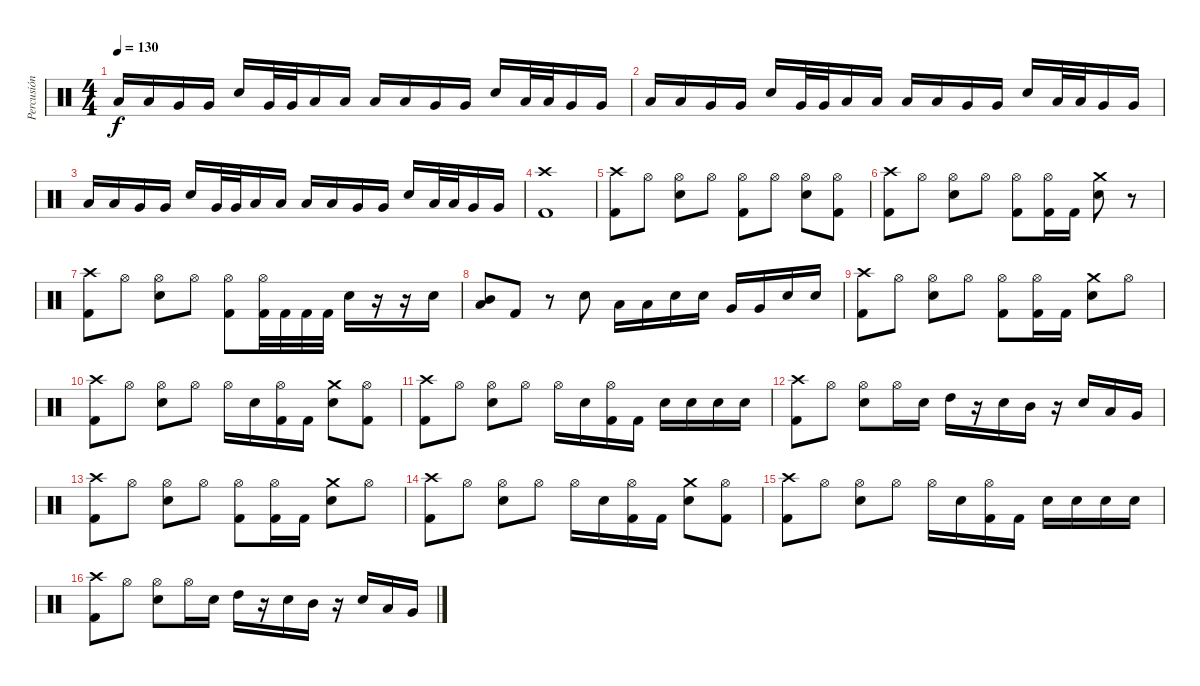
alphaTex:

\track ("Percusión" "Percusión") {instrument percussion}
\staff {score}
\articulation defaults
\ts (4 4)
\tempo 130
\clef neutral
\ks c "Low Tom (hit)".16{dy f} "Low Tom (hit)".16 "Very Low Tom (hit)".16 "Very Low Tom (hit)".16 "Electric Snare (hit)".16 "Very Low Tom (hit)".32 "Very Low Tom (hit)".32 "Low Floor Tom (hit)".16 "Low Floor Tom (hit)".16 "Low Tom (hit)".16 "Low Tom (hit)".16 "Very Low Tom (hit)".16 "Very Low Tom (hit)".16 "Electric Snare (hit)".16 "Low Tom (hit)".32 "Low Tom (hit)".32 "Very Low Tom (hit)".16 "Very Low Tom (hit)".16
|
"Low Tom (hit)".16 "Low Tom (hit)".16 "Very Low Tom (hit)".16 "Very Low Tom (hit)".16 "Electric Snare (hit)".16 "Very Low Tom (hit)".32 "Very Low Tom (hit)".32 "Low Floor Tom (hit)".16 "Low Floor Tom (hit)".16 "Low Tom (hit)".16 "Low Tom (hit)".16 "Very Low Tom (hit)".16 "Very Low Tom (hit)".16 "Electric Snare (hit)".16 "Low Tom (hit)".32 "Low Tom (hit)".32 "Very Low Tom (hit)".16 "Very Low Tom (hit)".16 |
"Low Tom (hit)".16 "Low Tom (hit)".16 "Very Low Tom (hit)".16 "Very Low Tom (hit)".16 "Electric Snare (hit)".16 "Very Low Tom (hit)".32 "Very Low Tom (hit)".32 "Low Floor Tom (hit)".16 "Low Floor Tom (hit)".16 "Low Tom (hit)".16 "Low Tom (hit)".16 "Very Low Tom (hit)".16 "Very Low Tom (hit)".16 "Electric Snare (hit)".16 "Low Tom (hit)".32 "Low Tom (hit)".32 "Very Low Tom (hit)".16 "Very Low Tom (hit)".16 |
("Crash high (hit)" "Kick (hit) 2").1 |
("Crash high (hit)" "Kick (hit) 2").8 "Hi-Hat (open)".8 ("Hi-Hat (open)" "Electric Snare (hit)").8 "Hi-Hat (open)".8 ("Hi-Hat (open)" "Kick (hit) 2").8 "Hi-Hat (open)".8 ("Hi-Hat (open)" "Electric Snare (hit)").8 ("Hi-Hat (open)" "Kick (hit) 2").8 |
("Crash high (hit)" "Kick (hit) 2").8 "Hi-Hat (open)".8 ("Hi-Hat (open)" "Electric Snare (hit)").8 "Hi-Hat (open)".8 ("Hi-Hat (open)" "Kick (hit) 2").8 ("Hi-Hat (open)" "Kick (hit) 2").16 "Kick (hit) 2".16 ("Crash medium (hit)" "Electric Snare (hit)").8 r.8 |
("Crash high (hit)" "Kick (hit) 2").8 "Hi-Hat (open)".8 ("Hi-Hat (open)" "Electric Snare (hit)").8 "Hi-Hat (open)".8 ("Hi-Hat (open)" "Kick (hit) 2").8 ("Hi-Hat (open)" "Kick (hit) 2").32 "Kick (hit) 2".32 "Kick (hit) 2".32 "Kick (hit) 2".32 "Electric Snare (hit)".16 r.16 r.16 "Electric Snare (hit)".16 |
("Mid Tom (hit)" "Low Tom (hit)").8 "Kick (hit) 2".8 r.8 "Electric Snare (hit)".8 "Low Tom (hit)".16 "Low Tom (hit)".16 "Electric Snare (hit)".16 "Electric Snare (hit)".16 "Very Low Tom (hit)".16 "Very Low Tom (hit)".16 "Electric Snare (hit)".16 "Electric Snare (hit)".16 |
("Crash high (hit)" "Kick (hit) 2").8 "Hi-Hat (open)".8 ("Hi-Hat (open)" "Electric Snare (hit)").8 "Hi-Hat (open)".8 ("Hi-Hat (open)" "Kick (hit) 2").8 ("Hi-Hat (open)" "Kick (hit) 2").16 "Kick (hit) 2".16 ("Crash medium (hit)" "Electric Snare (hit)").8 "Hi-Hat (open)".8 |
("Crash high (hit)" "Kick (hit) 2").8 "Hi-Hat (open)".8 ("Hi-Hat (open)" "Electric Snare (hit)").8 "Hi-Hat (open)".8 "Hi-Hat (open)".16 "Electric Snare (hit)".16 ("Hi-Hat (open)" "Kick (hit) 2").16 "Kick (hit) 2".16 ("Crash medium (hit)" "Electric Snare (hit)").8 ("Hi-Hat (open)" "Kick (hit) 2").8 |
("Crash high (hit)" "Kick (hit) 2").8 "Hi-Hat (open)".8 ("Hi-Hat (open)" "Electric Snare (hit)").8 "Hi-Hat (open)".8 "Hi-Hat (open)".16 "Electric Snare (hit)".16 ("Hi-Hat (open)" "Kick (hit) 2").16 "Kick (hit) 2".16 "Electric Snare (hit)".16 "Electric Snare (hit)".16 "Electric Snare (hit)".16 "Electric Snare (hit)".16 |
("Crash high (hit)" "Kick (hit) 2").8 "Hi-Hat (open)".8 ("Hi-Hat (open)" "Electric Snare (hit)").8 "Hi-Hat (open)".16 "Electric Snare (hit)".16 "High Tom (hit)".16 r.16 "Electric Snare (hit)".16 "Mid Tom (hit)".16 r.16 "Electric Snare (hit)".16 "Low Tom (hit)".16 "Very Low Tom (hit)".16 |
("Crash high (hit)" "Kick (hit) 2").8 "Hi-Hat (open)".8 ("Hi-Hat (open)" "Electric Snare (hit)").8 "Hi-Hat (open)".8 ("Hi-Hat (open)" "Kick (hit) 2").8 ("Hi-Hat (open)" "Kick (hit) 2").16 "Kick (hit) 2".16 ("Crash medium (hit)" "Electric Snare (hit)").8 "Hi-Hat (open)".8 |
("Crash high (hit)" "Kick (hit) 2").8 "Hi-Hat (open)".8 ("Hi-Hat (open)" "Electric Snare (hit)").8 "Hi-Hat (open)".8 "Hi-Hat (open)".16 "Electric Snare (hit)".16 ("Hi-Hat (open)" "Kick (hit) 2").16 "Kick (hit) 2".16 ("Crash medium (hit)" "Electric Snare (hit)").8 ("Hi-Hat (open)" "Kick (hit) 2").8 |
("Crash high (hit)" "Kick (hit) 2").8 "Hi-Hat (open)".8 ("Hi-Hat (open)" "Electric Snare (hit)").8 "Hi-Hat (open)".8 "Hi-Hat (open)".16 "Electric Snare (hit)".16 ("Hi-Hat (open)" "Kick (hit) 2").16 "Kick (hit) 2".16 "Electric Snare (hit)".16 "Electric Snare (hit)".16 "Electric Snare (hit)".16 "Electric Snare (hit)".16 |
("Crash high (hit)" "Kick (hit) 2").8 "Hi-Hat (open)".8 ("Hi-Hat (open)" "Electric Snare (hit)").8 "Hi-Hat (open)".16 "Electric Snare (hit)".16 "High Tom (hit)".16 r.16 "Electric Snare (hit)".16 "Mid Tom (hit)".16 r.16 "Electric Snare (hit)".16 "Low Tom (hit)".16 "Very Low Tom (hit)".16
